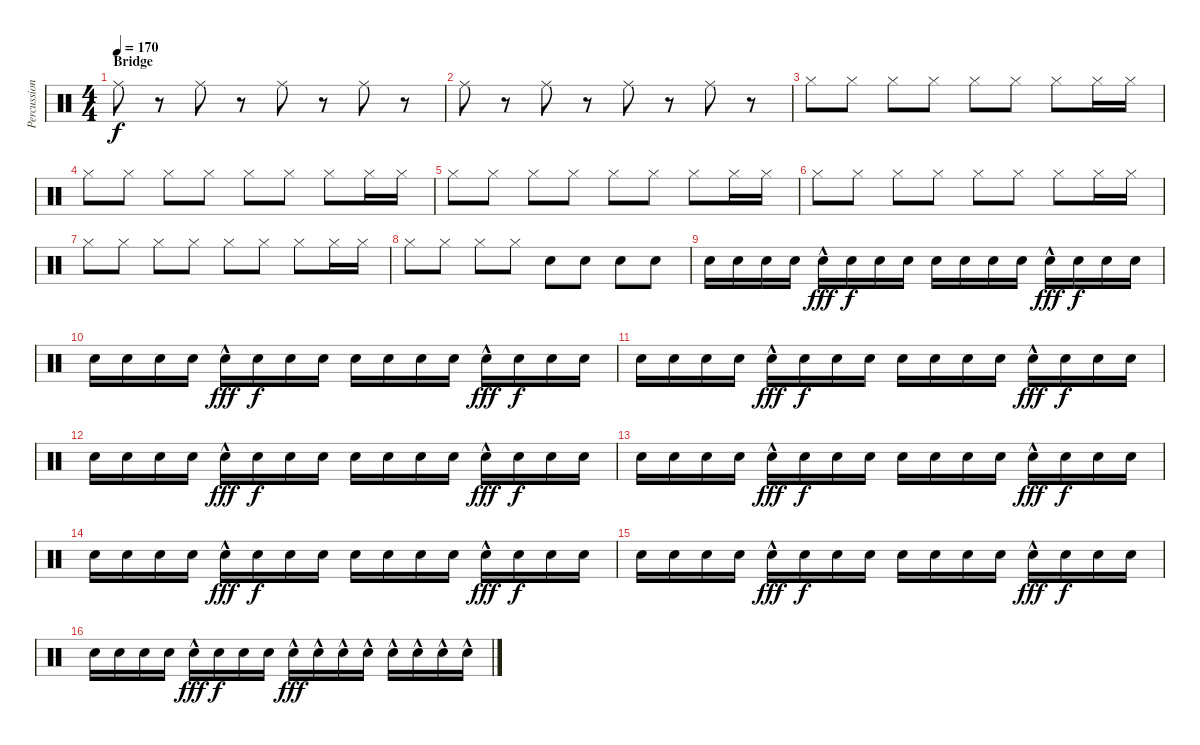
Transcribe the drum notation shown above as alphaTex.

\track ("Percussion" "Percussion") {instrument percussion}
\staff {score}
\articulation defaults
\ts (4 4)
\section ("" "Bridge")
\tempo 170
\clef neutral
\ks c "Ride (middle)".8{dy f}
r.8 "Ride (middle)".8 r.8 "Ride (middle)".8 r.8 "Ride (middle)".8 r.8 |
"Ride (middle)".8 r.8 "Ride (middle)".8 r.8 "Ride (middle)".8 r.8 "Ride (middle)".8 r.8 |
"Hi-Hat (closed)".8 "Hi-Hat (closed)".8 "Hi-Hat (closed)".8 "Hi-Hat (closed)".8 "Hi-Hat (closed)".8 "Hi-Hat (closed)".8 "Hi-Hat (closed)".8 "Hi-Hat (closed)".16 "Hi-Hat (closed)".16 |
"Hi-Hat (closed)".8 "Hi-Hat (closed)".8 "Hi-Hat (closed)".8 "Hi-Hat (closed)".8 "Hi-Hat (closed)".8 "Hi-Hat (closed)".8 "Hi-Hat (closed)".8 "Hi-Hat (closed)".16 "Hi-Hat (closed)".16 |
"Hi-Hat (closed)".8 "Hi-Hat (closed)".8 "Hi-Hat (closed)".8 "Hi-Hat (closed)".8 "Hi-Hat (closed)".8 "Hi-Hat (closed)".8 "Hi-Hat (closed)".8 "Hi-Hat (closed)".16 "Hi-Hat (closed)".16 |
"Hi-Hat (closed)".8 "Hi-Hat (closed)".8 "Hi-Hat (closed)".8 "Hi-Hat (closed)".8 "Hi-Hat (closed)".8 "Hi-Hat (closed)".8 "Hi-Hat (closed)".8 "Hi-Hat (closed)".16 "Hi-Hat (closed)".16 |
"Hi-Hat (closed)".8 "Hi-Hat (closed)".8 "Hi-Hat (closed)".8 "Hi-Hat (closed)".8 "Hi-Hat (closed)".8 "Hi-Hat (closed)".8 "Hi-Hat (closed)".8 "Hi-Hat (closed)".16 "Hi-Hat (closed)".16 |
"Hi-Hat (closed)".8 "Hi-Hat (closed)".8 "Hi-Hat (closed)".8 "Hi-Hat (closed)".8 "Electric Snare (hit)".8 "Electric Snare (hit)".8 "Electric Snare (hit)".8 "Electric Snare (hit)".8 |
"Electric Snare (hit)".16{volume 6} "Electric Snare (hit)".16 "Electric Snare (hit)".16 "Electric Snare (hit)".16 "Electric Snare (hit)"{hac}.16{dy fff} "Electric Snare (hit)".16{dy f} "Electric Snare (hit)".16 "Electric Snare (hit)".16 "Electric Snare (hit)".16 "Electric Snare (hit)".16 "Electric Snare (hit)".16 "Electric Snare (hit)".16 "Electric Snare (hit)"{hac}.16{dy fff} "Electric Snare (hit)".16{dy f} "Electric Snare (hit)".16 "Electric Snare (hit)".16 |
"Electric Snare (hit)".16{volume 6} "Electric Snare (hit)".16 "Electric Snare (hit)".16 "Electric Snare (hit)".16 "Electric Snare (hit)"{hac}.16{dy fff} "Electric Snare (hit)".16{dy f} "Electric Snare (hit)".16 "Electric Snare (hit)".16 "Electric Snare (hit)".16 "Electric Snare (hit)".16 "Electric Snare (hit)".16 "Electric Snare (hit)".16 "Electric Snare (hit)"{hac}.16{dy fff} "Electric Snare (hit)".16{dy f} "Electric Snare (hit)".16 "Electric Snare (hit)".16 |
"Electric Snare (hit)".16{volume 6} "Electric Snare (hit)".16 "Electric Snare (hit)".16 "Electric Snare (hit)".16 "Electric Snare (hit)"{hac}.16{dy fff} "Electric Snare (hit)".16{dy f} "Electric Snare (hit)".16 "Electric Snare (hit)".16 "Electric Snare (hit)".16 "Electric Snare (hit)".16 "Electric Snare (hit)".16 "Electric Snare (hit)".16 "Electric Snare (hit)"{hac}.16{dy fff} "Electric Snare (hit)".16{dy f} "Electric Snare (hit)".16 "Electric Snare (hit)".16 |
"Electric Snare (hit)".16{volume 6} "Electric Snare (hit)".16 "Electric Snare (hit)".16 "Electric Snare (hit)".16 "Electric Snare (hit)"{hac}.16{dy fff} "Electric Snare (hit)".16{dy f} "Electric Snare (hit)".16 "Electric Snare (hit)".16 "Electric Snare (hit)".16 "Electric Snare (hit)".16 "Electric Snare (hit)".16 "Electric Snare (hit)".16 "Electric Snare (hit)"{hac}.16{dy fff} "Electric Snare (hit)".16{dy f} "Electric Snare (hit)".16 "Electric Snare (hit)".16 |
"Electric Snare (hit)".16{volume 6} "Electric Snare (hit)".16 "Electric Snare (hit)".16 "Electric Snare (hit)".16 "Electric Snare (hit)"{hac}.16{dy fff} "Electric Snare (hit)".16{dy f} "Electric Snare (hit)".16 "Electric Snare (hit)".16 "Electric Snare (hit)".16 "Electric Snare (hit)".16 "Electric Snare (hit)".16 "Electric Snare (hit)".16 "Electric Snare (hit)"{hac}.16{dy fff} "Electric Snare (hit)".16{dy f} "Electric Snare (hit)".16 "Electric Snare (hit)".16 |
"Electric Snare (hit)".16{volume 6} "Electric Snare (hit)".16 "Electric Snare (hit)".16 "Electric Snare (hit)".16 "Electric Snare (hit)"{hac}.16{dy fff} "Electric Snare (hit)".16{dy f} "Electric Snare (hit)".16 "Electric Snare (hit)".16 "Electric Snare (hit)".16 "Electric Snare (hit)".16 "Electric Snare (hit)".16 "Electric Snare (hit)".16 "Electric Snare (hit)"{hac}.16{dy fff} "Electric Snare (hit)".16{dy f} "Electric Snare (hit)".16 "Electric Snare (hit)".16 |
"Electric Snare (hit)".16{volume 6} "Electric Snare (hit)".16 "Electric Snare (hit)".16 "Electric Snare (hit)".16 "Electric Snare (hit)"{hac}.16{dy fff} "Electric Snare (hit)".16{dy f} "Electric Snare (hit)".16 "Electric Snare (hit)".16 "Electric Snare (hit)".16 "Electric Snare (hit)".16 "Electric Snare (hit)".16 "Electric Snare (hit)".16 "Electric Snare (hit)"{hac}.16{dy fff} "Electric Snare (hit)".16{dy f} "Electric Snare (hit)".16 "Electric Snare (hit)".16 |
"Electric Snare (hit)".16{volume 6} "Electric Snare (hit)".16 "Electric Snare (hit)".16 "Electric Snare (hit)".16 "Electric Snare (hit)"{hac}.16{dy fff} "Electric Snare (hit)".16{dy f} "Electric Snare (hit)".16 "Electric Snare (hit)".16 "Electric Snare (hit)"{hac}.16{dy fff volume 10} "Electric Snare (hit)"{hac}.16 "Electric Snare (hit)"{hac}.16 "Electric Snare (hit)"{hac}.16 "Electric Snare (hit)"{hac}.16 "Electric Snare (hit)"{hac}.16 "Electric Snare (hit)"{hac}.16 "Electric Snare (hit)"{hac}.16
